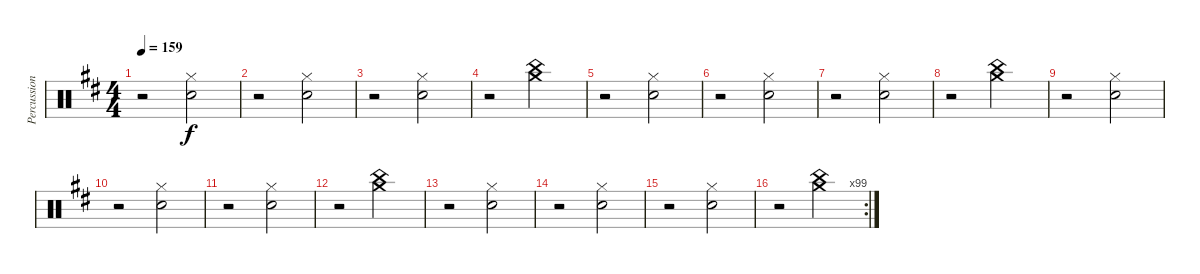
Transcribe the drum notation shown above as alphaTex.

\track ("Percussion" "Percussion") {instrument percussion}
\staff {score}
\articulation defaults
\ts (4 4)
\tempo 159
\clef neutral
\ks d
r.2{dy f} ("Electric Snare (hit)" "Hi-Hat (closed)").2 |
r.2 ("Electric Snare (hit)" "Hi-Hat (closed)").2 |
r.2 ("Electric Snare (hit)" "Hi-Hat (closed)").2 |
r.2 ("China (hit)" "Crash medium (hit)").2 |
r.2 ("Electric Snare (hit)" "Hi-Hat (closed)").2 |
r.2 ("Electric Snare (hit)" "Hi-Hat (closed)").2 |
r.2 ("Electric Snare (hit)" "Hi-Hat (closed)").2 |
r.2 ("China (hit)" "Crash medium (hit)").2 |
r.2 ("Electric Snare (hit)" "Hi-Hat (closed)").2 |
r.2 ("Electric Snare (hit)" "Hi-Hat (closed)").2 |
r.2 ("Electric Snare (hit)" "Hi-Hat (closed)").2 |
r.2 ("China (hit)" "Crash medium (hit)").2 |
r.2 ("Electric Snare (hit)" "Hi-Hat (closed)").2 |
r.2 ("Electric Snare (hit)" "Hi-Hat (closed)").2 |
r.2 ("Electric Snare (hit)" "Hi-Hat (closed)").2 |
\rc 99
r.2 ("China (hit)" "Crash medium (hit)").2
